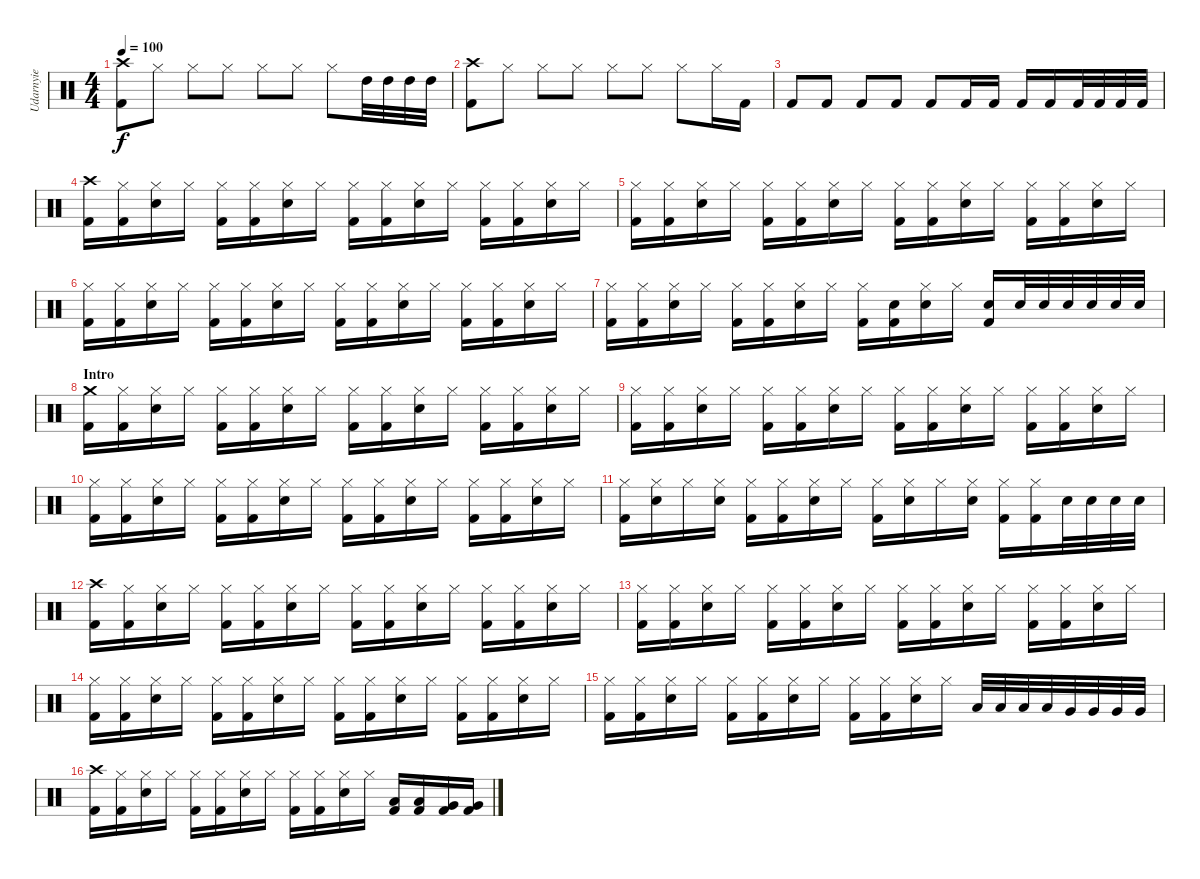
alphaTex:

\track ("Udarnyie" "Udarnyie") {instrument percussion}
\staff {score}
\articulation defaults
\ts (4 4)
\tempo 100
\clef neutral
\ks c
("Crash high (hit)" "Kick (hit) 2").8{dy f} "Hi-Hat (closed)".8 "Hi-Hat (closed)".8 "Hi-Hat (closed)".8 "Hi-Hat (closed)".8 "Hi-Hat (closed)".8 "Hi-Hat (closed)".8 "High Tom (hit)".32 "High Tom (hit)".32 "High Tom (hit)".32 "High Tom (hit)".32 |
("Crash high (hit)" "Kick (hit) 2").8 "Hi-Hat (closed)".8 "Hi-Hat (closed)".8 "Hi-Hat (closed)".8 "Hi-Hat (closed)".8 "Hi-Hat (closed)".8 "Hi-Hat (closed)".8 "Hi-Hat (closed)".16 "Kick (hit) 2".16 |
"Kick (hit) 2".8 "Kick (hit) 2".8 "Kick (hit) 2".8 "Kick (hit) 2".8 "Kick (hit) 2".8 "Kick (hit) 2".16 "Kick (hit) 2".16 "Kick (hit) 2".16 "Kick (hit) 2".16 "Kick (hit) 2".32 "Kick (hit) 2".32 "Kick (hit) 2".32 "Kick (hit) 2".32 |
("Crash high (hit)" "Kick (hit) 2").16 ("Hi-Hat (closed)" "Kick (hit) 2").16 ("Hi-Hat (closed)" "Snare (hit) 2").16 "Hi-Hat (closed)".16 ("Hi-Hat (closed)" "Kick (hit) 2").16 ("Hi-Hat (closed)" "Kick (hit) 2").16 ("Hi-Hat (closed)" "Snare (hit) 2").16 "Hi-Hat (closed)".16 ("Hi-Hat (closed)" "Kick (hit) 2").16 ("Hi-Hat (closed)" "Kick (hit) 2").16 ("Hi-Hat (closed)" "Snare (hit) 2").16 "Hi-Hat (closed)".16 ("Hi-Hat (closed)" "Kick (hit) 2").16 ("Hi-Hat (closed)" "Kick (hit) 2").16 ("Hi-Hat (closed)" "Snare (hit) 2").16 "Hi-Hat (closed)".16 |
("Hi-Hat (closed)" "Kick (hit) 2").16 ("Hi-Hat (closed)" "Kick (hit) 2").16 ("Hi-Hat (closed)" "Snare (hit) 2").16 "Hi-Hat (closed)".16 ("Hi-Hat (closed)" "Kick (hit) 2").16 ("Hi-Hat (closed)" "Kick (hit) 2").16 ("Hi-Hat (closed)" "Snare (hit) 2").16 "Hi-Hat (closed)".16 ("Hi-Hat (closed)" "Kick (hit) 2").16 ("Hi-Hat (closed)" "Kick (hit) 2").16 ("Hi-Hat (closed)" "Snare (hit) 2").16 "Hi-Hat (closed)".16 ("Hi-Hat (closed)" "Kick (hit) 2").16 ("Hi-Hat (closed)" "Kick (hit) 2").16 ("Hi-Hat (closed)" "Snare (hit) 2").16 "Hi-Hat (closed)".16 |
("Hi-Hat (closed)" "Kick (hit) 2").16 ("Hi-Hat (closed)" "Kick (hit) 2").16 ("Hi-Hat (closed)" "Snare (hit) 2").16 "Hi-Hat (closed)".16 ("Hi-Hat (closed)" "Kick (hit) 2").16 ("Hi-Hat (closed)" "Kick (hit) 2").16 ("Hi-Hat (closed)" "Snare (hit) 2").16 "Hi-Hat (closed)".16 ("Hi-Hat (closed)" "Kick (hit) 2").16 ("Hi-Hat (closed)" "Kick (hit) 2").16 ("Hi-Hat (closed)" "Snare (hit) 2").16 "Hi-Hat (closed)".16 ("Hi-Hat (closed)" "Kick (hit) 2").16 ("Hi-Hat (closed)" "Kick (hit) 2").16 ("Hi-Hat (closed)" "Snare (hit) 2").16 "Hi-Hat (closed)".16 |
("Hi-Hat (closed)" "Kick (hit) 2").16 ("Hi-Hat (closed)" "Kick (hit) 2").16 ("Hi-Hat (closed)" "Snare (hit) 2").16 "Hi-Hat (closed)".16 ("Hi-Hat (closed)" "Kick (hit) 2").16 ("Hi-Hat (closed)" "Kick (hit) 2").16 ("Hi-Hat (closed)" "Snare (hit) 2").16 "Hi-Hat (closed)".16 ("Hi-Hat (closed)" "Kick (hit) 2").16 ("Snare (hit) 2" "Kick (hit) 2").16 ("Hi-Hat (closed)" "Snare (hit) 2").16 "Hi-Hat (closed)".16 ("Electric Snare (hit)" "Kick (hit) 2").16 "Electric Snare (hit)".32 "Electric Snare (hit)".32 "Electric Snare (hit)".32 "Snare (hit) 2".32 "Snare (hit) 2".32 "Snare (hit) 2".32 |
\section ("" "Intro")
("Crash medium (hit)" "Kick (hit) 2").16 ("Hi-Hat (closed)" "Kick (hit) 2").16 ("Hi-Hat (closed)" "Snare (hit) 2").16 "Hi-Hat (closed)".16 ("Hi-Hat (closed)" "Kick (hit) 2").16 ("Hi-Hat (closed)" "Kick (hit) 2").16 ("Hi-Hat (closed)" "Snare (hit) 2").16 "Hi-Hat (closed)".16 ("Hi-Hat (closed)" "Kick (hit) 2").16 ("Hi-Hat (closed)" "Kick (hit) 2").16 ("Hi-Hat (closed)" "Snare (hit) 2").16 "Hi-Hat (closed)".16 ("Hi-Hat (closed)" "Kick (hit) 2").16 ("Hi-Hat (closed)" "Kick (hit) 2").16 ("Hi-Hat (closed)" "Snare (hit) 2").16 "Hi-Hat (closed)".16 |
("Hi-Hat (closed)" "Kick (hit) 2").16 ("Hi-Hat (closed)" "Kick (hit) 2").16 ("Hi-Hat (closed)" "Snare (hit) 2").16 "Hi-Hat (closed)".16 ("Hi-Hat (closed)" "Kick (hit) 2").16 ("Hi-Hat (closed)" "Kick (hit) 2").16 ("Hi-Hat (closed)" "Snare (hit) 2").16 "Hi-Hat (closed)".16 ("Hi-Hat (closed)" "Kick (hit) 2").16 ("Hi-Hat (closed)" "Kick (hit) 2").16 ("Hi-Hat (closed)" "Snare (hit) 2").16 "Hi-Hat (closed)".16 ("Hi-Hat (closed)" "Kick (hit) 2").16 ("Hi-Hat (closed)" "Kick (hit) 2").16 ("Hi-Hat (closed)" "Snare (hit) 2").16 "Hi-Hat (closed)".16 |
("Hi-Hat (closed)" "Kick (hit) 2").16 ("Hi-Hat (closed)" "Kick (hit) 2").16 ("Hi-Hat (closed)" "Snare (hit) 2").16 "Hi-Hat (closed)".16 ("Hi-Hat (closed)" "Kick (hit) 2").16 ("Hi-Hat (closed)" "Kick (hit) 2").16 ("Hi-Hat (closed)" "Snare (hit) 2").16 "Hi-Hat (closed)".16 ("Hi-Hat (closed)" "Kick (hit) 2").16 ("Hi-Hat (closed)" "Kick (hit) 2").16 ("Hi-Hat (closed)" "Snare (hit) 2").16 "Hi-Hat (closed)".16 ("Hi-Hat (closed)" "Kick (hit) 2").16 ("Hi-Hat (closed)" "Kick (hit) 2").16 ("Hi-Hat (closed)" "Snare (hit) 2").16 "Hi-Hat (closed)".16 |
("Hi-Hat (closed)" "Kick (hit) 2").16 ("Hi-Hat (closed)" "Snare (hit) 2").16 "Hi-Hat (closed)".16 ("Hi-Hat (closed)" "Snare (hit) 2").16 ("Hi-Hat (closed)" "Kick (hit) 2").16 ("Hi-Hat (closed)" "Kick (hit) 2").16 ("Hi-Hat (closed)" "Snare (hit) 2").16 "Hi-Hat (closed)".16 ("Hi-Hat (closed)" "Kick (hit) 2").16 ("Hi-Hat (closed)" "Snare (hit) 2").16 "Hi-Hat (closed)".16 ("Hi-Hat (closed)" "Electric Snare (hit)").16 ("Hi-Hat (closed)" "Kick (hit) 2").16 ("Hi-Hat (closed)" "Kick (hit) 2").16 "Electric Snare (hit)".32 "Electric Snare (hit)".32 "Electric Snare (hit)".32 "Electric Snare (hit)".32 |
("Crash high (hit)" "Kick (hit) 2").16 ("Hi-Hat (closed)" "Kick (hit) 2").16 ("Hi-Hat (closed)" "Snare (hit) 2").16 "Hi-Hat (closed)".16 ("Hi-Hat (closed)" "Kick (hit) 2").16 ("Hi-Hat (closed)" "Kick (hit) 2").16 ("Hi-Hat (closed)" "Snare (hit) 2").16 "Hi-Hat (closed)".16 ("Hi-Hat (closed)" "Kick (hit) 2").16 ("Hi-Hat (closed)" "Kick (hit) 2").16 ("Hi-Hat (closed)" "Snare (hit) 2").16 "Hi-Hat (closed)".16 ("Hi-Hat (closed)" "Kick (hit) 2").16 ("Hi-Hat (closed)" "Kick (hit) 2").16 ("Hi-Hat (closed)" "Snare (hit) 2").16 "Hi-Hat (closed)".16 |
("Hi-Hat (closed)" "Kick (hit) 2").16 ("Hi-Hat (closed)" "Kick (hit) 2").16 ("Hi-Hat (closed)" "Snare (hit) 2").16 "Hi-Hat (closed)".16 ("Hi-Hat (closed)" "Kick (hit) 2").16 ("Hi-Hat (closed)" "Kick (hit) 2").16 ("Hi-Hat (closed)" "Snare (hit) 2").16 "Hi-Hat (closed)".16 ("Hi-Hat (closed)" "Kick (hit) 2").16 ("Hi-Hat (closed)" "Kick (hit) 2").16 ("Hi-Hat (closed)" "Snare (hit) 2").16 "Hi-Hat (closed)".16 ("Hi-Hat (closed)" "Kick (hit) 2").16 ("Hi-Hat (closed)" "Kick (hit) 2").16 ("Hi-Hat (closed)" "Snare (hit) 2").16 "Hi-Hat (closed)".16 |
("Hi-Hat (closed)" "Kick (hit) 2").16 ("Hi-Hat (closed)" "Kick (hit) 2").16 ("Hi-Hat (closed)" "Snare (hit) 2").16 "Hi-Hat (closed)".16 ("Hi-Hat (closed)" "Kick (hit) 2").16 ("Hi-Hat (closed)" "Kick (hit) 2").16 ("Hi-Hat (closed)" "Snare (hit) 2").16 "Hi-Hat (closed)".16 ("Hi-Hat (closed)" "Kick (hit) 2").16 ("Hi-Hat (closed)" "Kick (hit) 2").16 ("Hi-Hat (closed)" "Snare (hit) 2").16 "Hi-Hat (closed)".16 ("Hi-Hat (closed)" "Kick (hit) 2").16 ("Hi-Hat (closed)" "Kick (hit) 2").16 ("Hi-Hat (closed)" "Snare (hit) 2").16 "Hi-Hat (closed)".16 |
("Hi-Hat (closed)" "Kick (hit) 2").16 ("Hi-Hat (closed)" "Kick (hit) 2").16 ("Hi-Hat (closed)" "Snare (hit) 2").16 "Hi-Hat (closed)".16 ("Hi-Hat (closed)" "Kick (hit) 2").16 ("Hi-Hat (closed)" "Kick (hit) 2").16 ("Hi-Hat (closed)" "Snare (hit) 2").16 "Hi-Hat (closed)".16 ("Hi-Hat (closed)" "Kick (hit) 2").16 ("Hi-Hat (closed)" "Kick (hit) 2").16 ("Hi-Hat (closed)" "Snare (hit) 2").16 "Hi-Hat (closed)".16 "Low Tom (hit)".32 "Low Tom (hit)".32 "Low Tom (hit)".32 "Low Tom (hit)".32 "Very Low Tom (hit)".32 "Very Low Tom (hit)".32 "Very Low Tom (hit)".32 "Very Low Tom (hit)".32 |
("Crash high (hit)" "Kick (hit) 2").16 ("Hi-Hat (closed)" "Kick (hit) 2").16 ("Hi-Hat (closed)" "Snare (hit) 2").16 "Hi-Hat (closed)".16 ("Hi-Hat (closed)" "Kick (hit) 2").16 ("Hi-Hat (closed)" "Kick (hit) 2").16 ("Hi-Hat (closed)" "Snare (hit) 2").16 "Hi-Hat (closed)".16 ("Hi-Hat (closed)" "Kick (hit) 2").16 ("Hi-Hat (closed)" "Kick (hit) 2").16 ("Hi-Hat (closed)" "Snare (hit) 2").16 "Hi-Hat (closed)".16 ("Kick (hit) 2" "Low Tom (hit)").16 ("Kick (hit) 2" "Low Tom (hit)").16 ("Kick (hit) 2" "Very Low Tom (hit)").16 ("Kick (hit) 2" "Very Low Tom (hit)").16
